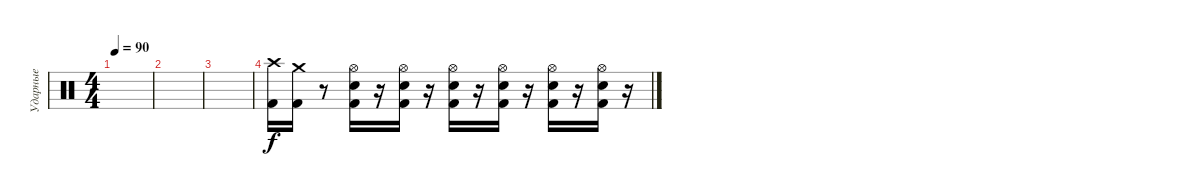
\track ("Ударные" "Ударные") {instrument percussion}
\staff {score}
\articulation defaults
\ts (4 4)
\tempo 90
\clef neutral
\ks c
|
|
|
("Crash high (hit)" "Kick (hit) 2").16 ("Crash medium (hit)" "Kick (hit) 2").16 r.8 ("Electric Snare (hit)" "Hi-Hat (open)" "Kick (hit) 2").16 r.16 ("Electric Snare (hit)" "Hi-Hat (open)" "Kick (hit) 2").16 r.16 ("Electric Snare (hit)" "Hi-Hat (open)" "Kick (hit) 2").16 r.16 ("Electric Snare (hit)" "Hi-Hat (open)" "Kick (hit) 2").16 r.16 ("Electric Snare (hit)" "Hi-Hat (open)" "Kick (hit) 2").16 r.16 ("Electric Snare (hit)" "Hi-Hat (open)" "Kick (hit) 2").16 r.16
